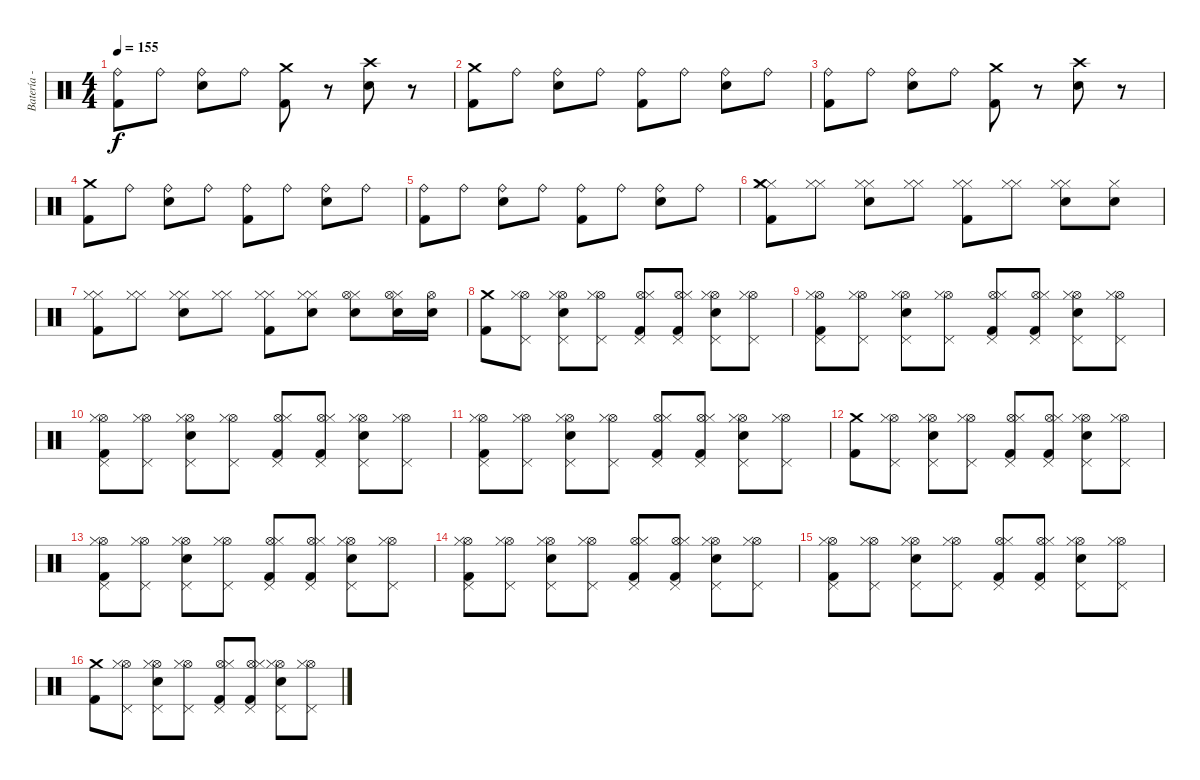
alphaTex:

\track ("Batería - Edu" "Batería - ") {instrument percussion}
\staff {score}
\articulation defaults
\ts (4 4)
\tempo 155
\clef neutral
\ks c
("Ride (bell)" "Kick (hit) 2").8{dy f} "Ride (bell)".8 ("Ride (bell)" "Electric Snare (hit)").8 "Ride (bell)".8 ("Crash medium (hit)" "Kick (hit) 2").8 r.8 ("Crash high (hit)" "Electric Snare (hit)").8 r.8 |
("Crash medium (hit)" "Kick (hit) 2").8 "Ride (bell)".8 ("Ride (bell)" "Electric Snare (hit)").8 "Ride (bell)".8 ("Ride (bell)" "Kick (hit) 2").8 "Ride (bell)".8 ("Ride (bell)" "Electric Snare (hit)").8 "Ride (bell)".8 |
("Ride (bell)" "Kick (hit) 2").8 "Ride (bell)".8 ("Ride (bell)" "Electric Snare (hit)").8 "Ride (bell)".8 ("Crash medium (hit)" "Kick (hit) 2").8 r.8 ("Crash high (hit)" "Electric Snare (hit)").8 r.8 |
("Crash medium (hit)" "Kick (hit) 2").8 "Ride (bell)".8 ("Ride (bell)" "Electric Snare (hit)").8 "Ride (bell)".8 ("Ride (bell)" "Kick (hit) 2").8 "Ride (bell)".8 ("Ride (bell)" "Electric Snare (hit)").8 "Ride (bell)".8 |
("Ride (bell)" "Kick (hit) 2").8 "Ride (bell)".8 ("Ride (bell)" "Electric Snare (hit)").8 "Ride (bell)".8 ("Ride (bell)" "Kick (hit) 2").8 "Ride (bell)".8 ("Ride (bell)" "Electric Snare (hit)").8 "Ride (bell)".8 |
("Hi-Hat (closed)" "Hi-Hat (closed)" "Crash medium (hit)" "Kick (hit) 2").8 ("Hi-Hat (closed)" "Hi-Hat (closed)").8 ("Hi-Hat (closed)" "Hi-Hat (closed)" "Electric Snare (hit)").8 ("Hi-Hat (closed)" "Hi-Hat (closed)").8 ("Hi-Hat (closed)" "Hi-Hat (closed)" "Kick (hit) 2").8 ("Hi-Hat (closed)" "Hi-Hat (closed)").8 ("Hi-Hat (closed)" "Hi-Hat (closed)" "Electric Snare (hit)").8 ("Hi-Hat (closed)" "Snare (hit)").8 |
("Hi-Hat (closed)" "Hi-Hat (closed)" "Kick (hit) 2").8 ("Hi-Hat (closed)" "Hi-Hat (closed)").8 ("Hi-Hat (closed)" "Hi-Hat (closed)" "Electric Snare (hit)").8 ("Hi-Hat (closed)" "Hi-Hat (closed)").8 ("Hi-Hat (closed)" "Hi-Hat (closed)" "Kick (hit) 2").8 ("Hi-Hat (closed)" "Hi-Hat (closed)" "Electric Snare (hit)").8 ("Hi-Hat (closed)" "Hi-Hat (open)" "Electric Snare (hit)").8 ("Hi-Hat (closed)" "Hi-Hat (open)" "Electric Snare (hit)").16 ("Hi-Hat (open)" "Snare (hit) 2").16 |
("Crash medium (hit)" "Kick (hit) 2").8 ("Pedal Hi-Hat (hit)" "Hi-Hat (open)" "Hi-Hat (closed)").8 ("Pedal Hi-Hat (hit)" "Hi-Hat (open)" "Hi-Hat (closed)" "Electric Snare (hit)").8 ("Pedal Hi-Hat (hit)" "Hi-Hat (open)" "Hi-Hat (closed)").8 ("Pedal Hi-Hat (hit)" "Hi-Hat (open)" "Hi-Hat (closed)" "Kick (hit) 2").8 ("Pedal Hi-Hat (hit)" "Hi-Hat (open)" "Hi-Hat (closed)" "Kick (hit) 2").8 ("Pedal Hi-Hat (hit)" "Hi-Hat (open)" "Hi-Hat (closed)" "Electric Snare (hit)").8 ("Pedal Hi-Hat (hit)" "Hi-Hat (open)" "Hi-Hat (closed)").8 |
("Pedal Hi-Hat (hit)" "Hi-Hat (open)" "Hi-Hat (closed)" "Kick (hit) 2").8 ("Pedal Hi-Hat (hit)" "Hi-Hat (open)" "Hi-Hat (closed)").8 ("Pedal Hi-Hat (hit)" "Hi-Hat (open)" "Hi-Hat (closed)" "Electric Snare (hit)").8 ("Pedal Hi-Hat (hit)" "Hi-Hat (open)" "Hi-Hat (closed)").8 ("Pedal Hi-Hat (hit)" "Hi-Hat (open)" "Hi-Hat (closed)" "Kick (hit) 2").8 ("Pedal Hi-Hat (hit)" "Hi-Hat (open)" "Hi-Hat (closed)" "Kick (hit) 2").8 ("Pedal Hi-Hat (hit)" "Hi-Hat (open)" "Hi-Hat (closed)" "Electric Snare (hit)").8 ("Pedal Hi-Hat (hit)" "Hi-Hat (open)" "Hi-Hat (closed)").8 |
("Pedal Hi-Hat (hit)" "Hi-Hat (open)" "Hi-Hat (closed)" "Kick (hit) 2").8 ("Pedal Hi-Hat (hit)" "Hi-Hat (open)" "Hi-Hat (closed)").8 ("Pedal Hi-Hat (hit)" "Hi-Hat (open)" "Hi-Hat (closed)" "Electric Snare (hit)").8 ("Pedal Hi-Hat (hit)" "Hi-Hat (open)" "Hi-Hat (closed)").8 ("Pedal Hi-Hat (hit)" "Hi-Hat (open)" "Hi-Hat (closed)" "Kick (hit) 2").8 ("Pedal Hi-Hat (hit)" "Hi-Hat (open)" "Hi-Hat (closed)" "Kick (hit) 2").8 ("Pedal Hi-Hat (hit)" "Hi-Hat (open)" "Hi-Hat (closed)" "Electric Snare (hit)").8 ("Pedal Hi-Hat (hit)" "Hi-Hat (open)" "Hi-Hat (closed)").8 |
("Pedal Hi-Hat (hit)" "Hi-Hat (open)" "Hi-Hat (closed)" "Kick (hit) 2").8 ("Pedal Hi-Hat (hit)" "Hi-Hat (open)" "Hi-Hat (closed)").8 ("Pedal Hi-Hat (hit)" "Hi-Hat (open)" "Hi-Hat (closed)" "Electric Snare (hit)").8 ("Pedal Hi-Hat (hit)" "Hi-Hat (open)" "Hi-Hat (closed)").8 ("Pedal Hi-Hat (hit)" "Hi-Hat (open)" "Hi-Hat (closed)" "Kick (hit) 2").8 ("Pedal Hi-Hat (hit)" "Hi-Hat (open)" "Hi-Hat (closed)" "Kick (hit) 2").8 ("Pedal Hi-Hat (hit)" "Hi-Hat (open)" "Hi-Hat (closed)" "Electric Snare (hit)").8 ("Pedal Hi-Hat (hit)" "Hi-Hat (open)" "Hi-Hat (closed)").8 |
("Crash medium (hit)" "Kick (hit) 2").8 ("Pedal Hi-Hat (hit)" "Hi-Hat (open)" "Hi-Hat (closed)").8 ("Pedal Hi-Hat (hit)" "Hi-Hat (open)" "Hi-Hat (closed)" "Electric Snare (hit)").8 ("Pedal Hi-Hat (hit)" "Hi-Hat (open)" "Hi-Hat (closed)").8 ("Pedal Hi-Hat (hit)" "Hi-Hat (open)" "Hi-Hat (closed)" "Kick (hit) 2").8 ("Pedal Hi-Hat (hit)" "Hi-Hat (open)" "Hi-Hat (closed)" "Kick (hit) 2").8 ("Pedal Hi-Hat (hit)" "Hi-Hat (open)" "Hi-Hat (closed)" "Electric Snare (hit)").8 ("Pedal Hi-Hat (hit)" "Hi-Hat (open)" "Hi-Hat (closed)").8 |
("Pedal Hi-Hat (hit)" "Hi-Hat (open)" "Hi-Hat (closed)" "Kick (hit) 2").8 ("Pedal Hi-Hat (hit)" "Hi-Hat (open)" "Hi-Hat (closed)").8 ("Pedal Hi-Hat (hit)" "Hi-Hat (open)" "Hi-Hat (closed)" "Electric Snare (hit)").8 ("Pedal Hi-Hat (hit)" "Hi-Hat (open)" "Hi-Hat (closed)").8 ("Pedal Hi-Hat (hit)" "Hi-Hat (open)" "Hi-Hat (closed)" "Kick (hit) 2").8 ("Pedal Hi-Hat (hit)" "Hi-Hat (open)" "Hi-Hat (closed)" "Kick (hit) 2").8 ("Pedal Hi-Hat (hit)" "Hi-Hat (open)" "Hi-Hat (closed)" "Electric Snare (hit)").8 ("Pedal Hi-Hat (hit)" "Hi-Hat (open)" "Hi-Hat (closed)").8 |
("Pedal Hi-Hat (hit)" "Hi-Hat (open)" "Hi-Hat (closed)" "Kick (hit) 2").8 ("Pedal Hi-Hat (hit)" "Hi-Hat (open)" "Hi-Hat (closed)").8 ("Pedal Hi-Hat (hit)" "Hi-Hat (open)" "Hi-Hat (closed)" "Electric Snare (hit)").8 ("Pedal Hi-Hat (hit)" "Hi-Hat (open)" "Hi-Hat (closed)").8 ("Pedal Hi-Hat (hit)" "Hi-Hat (open)" "Hi-Hat (closed)" "Kick (hit) 2").8 ("Pedal Hi-Hat (hit)" "Hi-Hat (open)" "Hi-Hat (closed)" "Kick (hit) 2").8 ("Pedal Hi-Hat (hit)" "Hi-Hat (open)" "Hi-Hat (closed)" "Electric Snare (hit)").8 ("Pedal Hi-Hat (hit)" "Hi-Hat (open)" "Hi-Hat (closed)").8 |
("Pedal Hi-Hat (hit)" "Hi-Hat (open)" "Hi-Hat (closed)" "Kick (hit) 2").8 ("Pedal Hi-Hat (hit)" "Hi-Hat (open)" "Hi-Hat (closed)").8 ("Pedal Hi-Hat (hit)" "Hi-Hat (open)" "Hi-Hat (closed)" "Electric Snare (hit)").8 ("Pedal Hi-Hat (hit)" "Hi-Hat (open)" "Hi-Hat (closed)").8 ("Pedal Hi-Hat (hit)" "Hi-Hat (open)" "Hi-Hat (closed)" "Kick (hit) 2").8 ("Pedal Hi-Hat (hit)" "Hi-Hat (open)" "Hi-Hat (closed)" "Kick (hit) 2").8 ("Pedal Hi-Hat (hit)" "Hi-Hat (open)" "Hi-Hat (closed)" "Electric Snare (hit)").8 ("Pedal Hi-Hat (hit)" "Hi-Hat (open)" "Hi-Hat (closed)").8 |
("Crash medium (hit)" "Kick (hit) 2").8 ("Pedal Hi-Hat (hit)" "Hi-Hat (open)" "Hi-Hat (closed)").8 ("Pedal Hi-Hat (hit)" "Hi-Hat (open)" "Hi-Hat (closed)" "Electric Snare (hit)").8 ("Pedal Hi-Hat (hit)" "Hi-Hat (open)" "Hi-Hat (closed)").8 ("Pedal Hi-Hat (hit)" "Hi-Hat (open)" "Hi-Hat (closed)" "Kick (hit) 2").8 ("Pedal Hi-Hat (hit)" "Hi-Hat (open)" "Hi-Hat (closed)" "Kick (hit) 2").8 ("Pedal Hi-Hat (hit)" "Hi-Hat (open)" "Hi-Hat (closed)" "Electric Snare (hit)").8 ("Pedal Hi-Hat (hit)" "Hi-Hat (open)" "Hi-Hat (closed)").8
